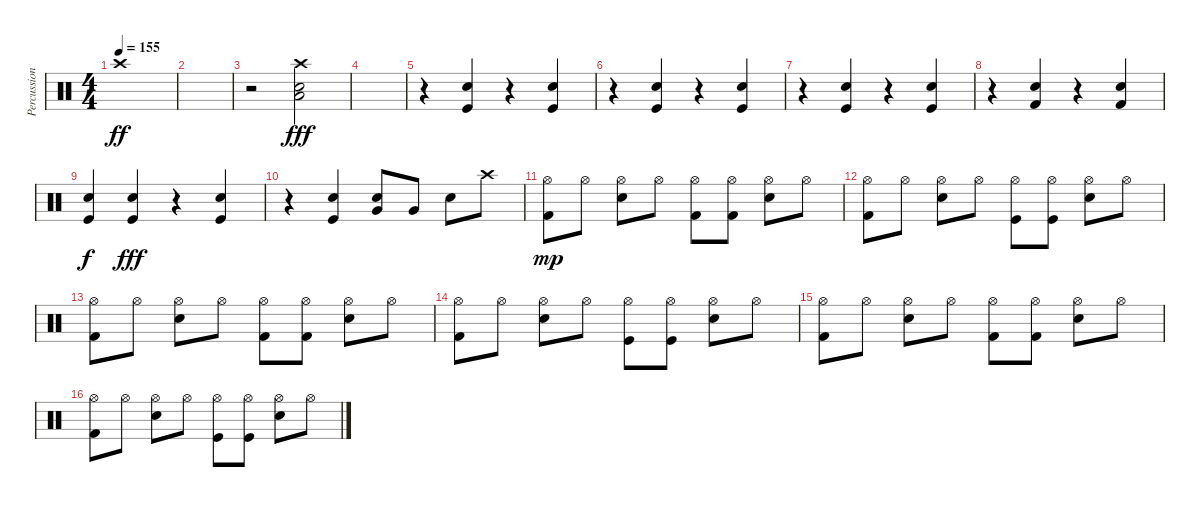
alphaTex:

\track ("Percussion" "Percussion") {instrument percussion}
\staff {score}
\articulation defaults
\ts (4 4)
\tempo 155
\clef neutral
\ks c "Crash high (hit)".1{dy ff}
|
|
r.2 ("Snare (hit) 2" "Low Tom (hit)" "Crash high (hit)").2{dy fff} |
|
r.4 ("Kick (hit)" "Snare (hit) 2").4 r.4 ("Kick (hit)" "Snare (hit) 2").4 |
r.4 ("Kick (hit)" "Snare (hit) 2").4 r.4 ("Kick (hit)" "Snare (hit) 2").4 |
r.4 ("Kick (hit)" "Snare (hit) 2").4 r.4 ("Kick (hit)" "Snare (hit) 2").4 |
r.4 ("Kick (hit) 2" "Snare (hit) 2").4 r.4 ("Kick (hit) 2" "Snare (hit) 2").4 |
("Snare (hit) 2" "Kick (hit)").4{dy f} ("Snare (hit) 2" "Kick (hit)").4{dy fff} r.4 ("Snare (hit) 2" "Kick (hit)").4 |
r.4 ("Snare (hit) 2" "Kick (hit)").4 ("Snare (hit) 2" "Very Low Tom (hit)").8 "Very Low Tom (hit)".8 "Snare (hit) 2".8 "Crash high (hit)".8 |
("Kick (hit) 2" "Hi-Hat (open)").8{dy mp} "Hi-Hat (open)".8 ("Snare (hit) 2" "Hi-Hat (open)").8 "Hi-Hat (open)".8 ("Kick (hit) 2" "Hi-Hat (open)").8 ("Kick (hit) 2" "Hi-Hat (open)").8 ("Snare (hit) 2" "Hi-Hat (open)").8 "Hi-Hat (open)".8 |
("Kick (hit) 2" "Hi-Hat (open)").8 "Hi-Hat (open)".8 ("Snare (hit) 2" "Hi-Hat (open)").8 "Hi-Hat (open)".8 ("Kick (hit)" "Hi-Hat (open)").8 ("Kick (hit)" "Hi-Hat (open)").8 ("Snare (hit) 2" "Hi-Hat (open)").8 "Hi-Hat (open)".8 |
("Kick (hit) 2" "Hi-Hat (open)").8 "Hi-Hat (open)".8 ("Snare (hit) 2" "Hi-Hat (open)").8 "Hi-Hat (open)".8 ("Kick (hit) 2" "Hi-Hat (open)").8 ("Kick (hit) 2" "Hi-Hat (open)").8 ("Snare (hit) 2" "Hi-Hat (open)").8 "Hi-Hat (open)".8 |
("Kick (hit) 2" "Hi-Hat (open)").8 "Hi-Hat (open)".8 ("Snare (hit) 2" "Hi-Hat (open)").8 "Hi-Hat (open)".8 ("Kick (hit)" "Hi-Hat (open)").8 ("Kick (hit)" "Hi-Hat (open)").8 ("Snare (hit) 2" "Hi-Hat (open)").8 "Hi-Hat (open)".8 |
("Kick (hit) 2" "Hi-Hat (open)").8 "Hi-Hat (open)".8 ("Snare (hit) 2" "Hi-Hat (open)").8 "Hi-Hat (open)".8 ("Kick (hit) 2" "Hi-Hat (open)").8 ("Kick (hit) 2" "Hi-Hat (open)").8 ("Snare (hit) 2" "Hi-Hat (open)").8 "Hi-Hat (open)".8 |
("Kick (hit) 2" "Hi-Hat (open)").8 "Hi-Hat (open)".8 ("Snare (hit) 2" "Hi-Hat (open)").8 "Hi-Hat (open)".8 ("Kick (hit)" "Hi-Hat (open)").8 ("Kick (hit)" "Hi-Hat (open)").8 ("Snare (hit) 2" "Hi-Hat (open)").8 "Hi-Hat (open)".8
